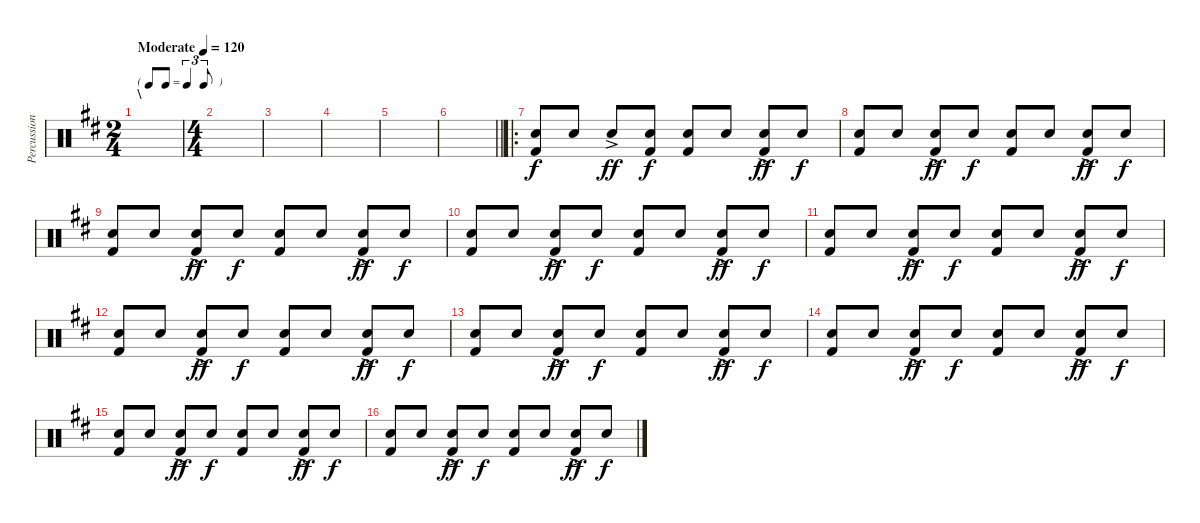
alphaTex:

\track ("Percussion" "Percussion") {instrument percussion}
\staff {score}
\articulation defaults
\ts (2 4)
\tf triplet8th
\section ("" "\\")
\tempo (120 "Moderate")
\clef neutral
\ks d
|
\ts (4 4)
|
|
|
|
\barLineRight lightlight
|
\ro
("Snare (hit) 2" "Kick (hit) 2").8 "Snare (hit) 2".8 "Snare (hit) 2"{ac}.8{dy ff} ("Snare (hit) 2" "Kick (hit) 2").8{dy f} ("Snare (hit) 2" "Kick (hit) 2").8 "Snare (hit) 2".8 ("Snare (hit) 2"{ac} "Kick (hit) 2").8{dy ff} "Snare (hit) 2".8{dy f} |
("Snare (hit) 2" "Kick (hit) 2").8 "Snare (hit) 2".8 ("Snare (hit) 2"{ac} "Kick (hit) 2").8{dy ff} "Snare (hit) 2".8{dy f} ("Snare (hit) 2" "Kick (hit) 2").8 "Snare (hit) 2".8 ("Snare (hit) 2"{ac} "Kick (hit) 2").8{dy ff} "Snare (hit) 2".8{dy f} |
("Snare (hit) 2" "Kick (hit) 2").8 "Snare (hit) 2".8 ("Snare (hit) 2"{ac} "Kick (hit) 2").8{dy ff} "Snare (hit) 2".8{dy f} ("Snare (hit) 2" "Kick (hit) 2").8 "Snare (hit) 2".8 ("Snare (hit) 2"{ac} "Kick (hit) 2").8{dy ff} "Snare (hit) 2".8{dy f} |
("Snare (hit) 2" "Kick (hit) 2").8 "Snare (hit) 2".8 ("Snare (hit) 2"{ac} "Kick (hit) 2").8{dy ff} "Snare (hit) 2".8{dy f} ("Snare (hit) 2" "Kick (hit) 2").8 "Snare (hit) 2".8 ("Snare (hit) 2"{ac} "Kick (hit) 2").8{dy ff} "Snare (hit) 2".8{dy f} |
("Snare (hit) 2" "Kick (hit) 2").8 "Snare (hit) 2".8 ("Snare (hit) 2"{ac} "Kick (hit) 2").8{dy ff} "Snare (hit) 2".8{dy f} ("Snare (hit) 2" "Kick (hit) 2").8 "Snare (hit) 2".8 ("Snare (hit) 2"{ac} "Kick (hit) 2").8{dy ff} "Snare (hit) 2".8{dy f} |
("Snare (hit) 2" "Kick (hit) 2").8 "Snare (hit) 2".8 ("Snare (hit) 2"{ac} "Kick (hit) 2").8{dy ff} "Snare (hit) 2".8{dy f} ("Snare (hit) 2" "Kick (hit) 2").8 "Snare (hit) 2".8 ("Snare (hit) 2"{ac} "Kick (hit) 2").8{dy ff} "Snare (hit) 2".8{dy f} |
("Snare (hit) 2" "Kick (hit) 2").8 "Snare (hit) 2".8 ("Snare (hit) 2"{ac} "Kick (hit) 2").8{dy ff} "Snare (hit) 2".8{dy f} ("Snare (hit) 2" "Kick (hit) 2").8 "Snare (hit) 2".8 ("Snare (hit) 2"{ac} "Kick (hit) 2").8{dy ff} "Snare (hit) 2".8{dy f} |
("Snare (hit) 2" "Kick (hit) 2").8 "Snare (hit) 2".8 ("Snare (hit) 2"{ac} "Kick (hit) 2").8{dy ff} "Snare (hit) 2".8{dy f} ("Snare (hit) 2" "Kick (hit) 2").8 "Snare (hit) 2".8 ("Snare (hit) 2"{ac} "Kick (hit) 2").8{dy ff} "Snare (hit) 2".8{dy f} |
("Snare (hit) 2" "Kick (hit) 2").8 "Snare (hit) 2".8 ("Snare (hit) 2"{ac} "Kick (hit) 2").8{dy ff} "Snare (hit) 2".8{dy f} ("Snare (hit) 2" "Kick (hit) 2").8 "Snare (hit) 2".8 ("Snare (hit) 2"{ac} "Kick (hit) 2").8{dy ff} "Snare (hit) 2".8{dy f} |
("Snare (hit) 2" "Kick (hit) 2").8 "Snare (hit) 2".8 ("Snare (hit) 2"{ac} "Kick (hit) 2").8{dy ff} "Snare (hit) 2".8{dy f} ("Snare (hit) 2" "Kick (hit) 2").8 "Snare (hit) 2".8 ("Snare (hit) 2"{ac} "Kick (hit) 2").8{dy ff} "Snare (hit) 2".8{dy f}
